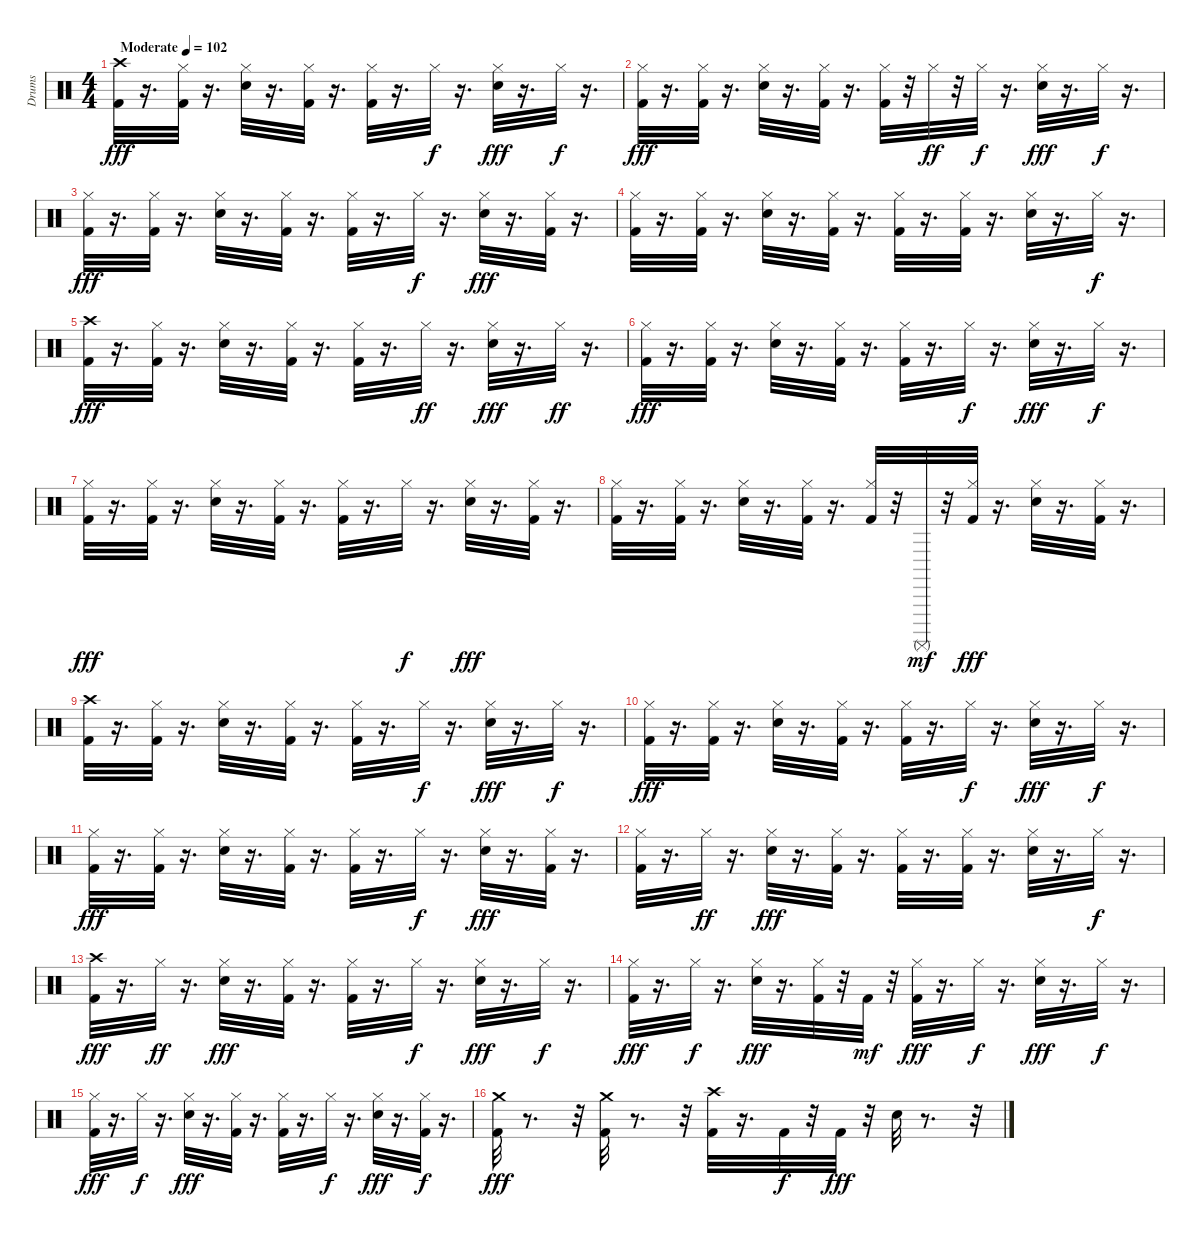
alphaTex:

\track ("Drums" "Drums") {instrument percussion}
\staff {score}
\articulation defaults
\ts (4 4)
\tempo (102 "Moderate")
\clef neutral
\ks c
("Crash high (hit)" "Kick (hit) 2").32{dy fff} r.16{d} ("Hi-Hat (closed)" "Kick (hit) 2").32 r.16{d} ("Hi-Hat (closed)" "Electric Snare (hit)").32 r.16{d} ("Hi-Hat (closed)" "Kick (hit) 2").32 r.16{d} ("Hi-Hat (closed)" "Kick (hit) 2").32 r.16{d} "Hi-Hat (closed)".32{dy f} r.16{d} ("Hi-Hat (closed)" "Electric Snare (hit)").32{dy fff} r.16{d} "Hi-Hat (closed)".32{dy f} r.16{d} |
("Hi-Hat (closed)" "Kick (hit) 2").32{dy fff} r.16{d} ("Hi-Hat (closed)" "Kick (hit) 2").32 r.16{d} ("Hi-Hat (closed)" "Electric Snare (hit)").32 r.16{d} ("Hi-Hat (closed)" "Kick (hit) 2").32 r.16{d} ("Hi-Hat (closed)" "Kick (hit) 2").32 r.32 "Hi-Hat (closed)".32{dy ff} r.32 "Hi-Hat (closed)".32{dy f} r.16{d} ("Hi-Hat (closed)" "Electric Snare (hit)").32{dy fff} r.16{d} "Hi-Hat (closed)".32{dy f} r.16{d} |
("Hi-Hat (closed)" "Kick (hit) 2").32{dy fff} r.16{d} ("Hi-Hat (closed)" "Kick (hit) 2").32 r.16{d} ("Hi-Hat (closed)" "Electric Snare (hit)").32 r.16{d} ("Hi-Hat (closed)" "Kick (hit) 2").32 r.16{d} ("Hi-Hat (closed)" "Kick (hit) 2").32 r.16{d} "Hi-Hat (closed)".32{dy f} r.16{d} ("Hi-Hat (closed)" "Electric Snare (hit)").32{dy fff} r.16{d} ("Kick (hit) 2" "Hi-Hat (closed)").32 r.16{d} |
("Hi-Hat (closed)" "Kick (hit) 2").32 r.16{d} ("Hi-Hat (closed)" "Kick (hit) 2").32 r.16{d} ("Hi-Hat (closed)" "Electric Snare (hit)").32 r.16{d} ("Hi-Hat (closed)" "Kick (hit) 2").32 r.16{d} ("Hi-Hat (closed)" "Kick (hit) 2").32 r.16{d} ("Kick (hit) 2" "Hi-Hat (closed)").32 r.16{d} ("Hi-Hat (closed)" "Electric Snare (hit)").32 r.16{d} "Hi-Hat (closed)".32{dy f} r.16{d} |
("Crash high (hit)" "Kick (hit) 2").32{dy fff} r.16{d} ("Hi-Hat (closed)" "Kick (hit) 2").32 r.16{d} ("Hi-Hat (closed)" "Electric Snare (hit)").32 r.16{d} ("Hi-Hat (closed)" "Kick (hit) 2").32 r.16{d} ("Hi-Hat (closed)" "Kick (hit) 2").32 r.16{d} "Hi-Hat (closed)".32{dy ff} r.16{d} ("Hi-Hat (closed)" "Electric Snare (hit)").32{dy fff} r.16{d} "Hi-Hat (closed)".32{dy ff} r.16{d} |
("Hi-Hat (closed)" "Kick (hit) 2").32{dy fff} r.16{d} ("Hi-Hat (closed)" "Kick (hit) 2").32 r.16{d} ("Hi-Hat (closed)" "Electric Snare (hit)").32 r.16{d} ("Hi-Hat (closed)" "Kick (hit) 2").32 r.16{d} ("Hi-Hat (closed)" "Kick (hit) 2").32 r.16{d} "Hi-Hat (closed)".32{dy f} r.16{d} ("Hi-Hat (closed)" "Electric Snare (hit)").32{dy fff} r.16{d} "Hi-Hat (closed)".32{dy f} r.16{d} |
("Hi-Hat (closed)" "Kick (hit) 2").32{dy fff} r.16{d} ("Hi-Hat (closed)" "Kick (hit) 2").32 r.16{d} ("Hi-Hat (closed)" "Electric Snare (hit)").32 r.16{d} ("Hi-Hat (closed)" "Kick (hit) 2").32 r.16{d} ("Hi-Hat (closed)" "Kick (hit) 2").32 r.16{d} "Hi-Hat (closed)".32{dy f} r.16{d} ("Hi-Hat (closed)" "Electric Snare (hit)").32{dy fff} r.16{d} ("Kick (hit) 2" "Hi-Hat (closed)").32 r.16{d} |
("Hi-Hat (closed)" "Kick (hit) 2").32 r.16{d} ("Hi-Hat (closed)" "Kick (hit) 2").32 r.16{d} ("Hi-Hat (closed)" "Electric Snare (hit)").32 r.16{d} ("Hi-Hat (closed)" "Kick (hit) 2").32 r.16{d} ("Hi-Hat (closed)" "Kick (hit) 2").32 r.32 "Surdo (mute)".32{dy mf} r.32 ("Kick (hit) 2" "Hi-Hat (closed)").32{dy fff} r.16{d} ("Hi-Hat (closed)" "Electric Snare (hit)").32 r.16{d} ("Kick (hit) 2" "Hi-Hat (closed)").32 r.16{d} |
("Crash high (hit)" "Kick (hit) 2").32 r.16{d} ("Hi-Hat (closed)" "Kick (hit) 2").32 r.16{d} ("Hi-Hat (closed)" "Electric Snare (hit)").32 r.16{d} ("Hi-Hat (closed)" "Kick (hit) 2").32 r.16{d} ("Hi-Hat (closed)" "Kick (hit) 2").32 r.16{d} "Hi-Hat (closed)".32{dy f} r.16{d} ("Hi-Hat (closed)" "Electric Snare (hit)").32{dy fff} r.16{d} "Hi-Hat (closed)".32{dy f} r.16{d} |
("Hi-Hat (closed)" "Kick (hit) 2").32{dy fff} r.16{d} ("Hi-Hat (closed)" "Kick (hit) 2").32 r.16{d} ("Hi-Hat (closed)" "Electric Snare (hit)").32 r.16{d} ("Hi-Hat (closed)" "Kick (hit) 2").32 r.16{d} ("Hi-Hat (closed)" "Kick (hit) 2").32 r.16{d} "Hi-Hat (closed)".32{dy f} r.16{d} ("Hi-Hat (closed)" "Electric Snare (hit)").32{dy fff} r.16{d} "Hi-Hat (closed)".32{dy f} r.16{d} |
("Hi-Hat (closed)" "Kick (hit) 2").32{dy fff} r.16{d} ("Hi-Hat (closed)" "Kick (hit) 2").32 r.16{d} ("Hi-Hat (closed)" "Electric Snare (hit)").32 r.16{d} ("Hi-Hat (closed)" "Kick (hit) 2").32 r.16{d} ("Hi-Hat (closed)" "Kick (hit) 2").32 r.16{d} "Hi-Hat (closed)".32{dy f} r.16{d} ("Hi-Hat (closed)" "Electric Snare (hit)").32{dy fff} r.16{d} ("Kick (hit) 2" "Hi-Hat (closed)").32 r.16{d} |
("Hi-Hat (closed)" "Kick (hit) 2").32 r.16{d} "Hi-Hat (closed)".32{dy ff} r.16{d} ("Hi-Hat (closed)" "Electric Snare (hit)").32{dy fff} r.16{d} ("Hi-Hat (closed)" "Kick (hit) 2").32 r.16{d} ("Hi-Hat (closed)" "Kick (hit) 2").32 r.16{d} ("Kick (hit) 2" "Hi-Hat (closed)").32 r.16{d} ("Hi-Hat (closed)" "Electric Snare (hit)").32 r.16{d} "Hi-Hat (closed)".32{dy f} r.16{d} |
("Crash high (hit)" "Kick (hit) 2").32{dy fff} r.16{d} "Hi-Hat (closed)".32{dy ff} r.16{d} ("Hi-Hat (closed)" "Electric Snare (hit)").32{dy fff} r.16{d} ("Hi-Hat (closed)" "Kick (hit) 2").32 r.16{d} ("Hi-Hat (closed)" "Kick (hit) 2").32 r.16{d} "Hi-Hat (closed)".32{dy f} r.16{d} ("Hi-Hat (closed)" "Electric Snare (hit)").32{dy fff} r.16{d} "Hi-Hat (closed)".32{dy f} r.16{d} |
("Hi-Hat (closed)" "Kick (hit) 2").32{dy fff} r.16{d} "Hi-Hat (closed)".32{dy f} r.16{d} ("Hi-Hat (closed)" "Electric Snare (hit)").32{dy fff} r.16{d} ("Hi-Hat (closed)" "Kick (hit) 2").32 r.32 "Kick (hit) 2".32{dy mf} r.32 ("Hi-Hat (closed)" "Kick (hit) 2").32{dy fff} r.16{d} "Hi-Hat (closed)".32{dy f} r.16{d} ("Hi-Hat (closed)" "Electric Snare (hit)").32{dy fff} r.16{d} "Hi-Hat (closed)".32{dy f} r.16{d} |
("Hi-Hat (closed)" "Kick (hit) 2").32{dy fff} r.16{d} "Hi-Hat (closed)".32{dy f} r.16{d} ("Hi-Hat (closed)" "Electric Snare (hit)").32{dy fff} r.16{d} ("Hi-Hat (closed)" "Kick (hit) 2").32 r.16{d} ("Hi-Hat (closed)" "Kick (hit) 2").32 r.16{d} "Hi-Hat (closed)".32{dy f} r.16{d} ("Hi-Hat (closed)" "Electric Snare (hit)").32{dy fff} r.16{d} ("Kick (hit) 2" "Hi-Hat (closed)").32{dy f} r.16{d} |
("Crash medium (hit)" "Kick (hit) 2").32{dy fff} r.8{d} r.32 ("Crash medium (hit)" "Kick (hit) 2").32 r.8{d} r.32 ("Crash high (hit)" "Kick (hit) 2").32 r.16{d} "Kick (hit) 2".32{dy f} r.32 "Kick (hit) 2".32{dy fff} r.32 "Electric Snare (hit)".32 r.8{d} r.32
